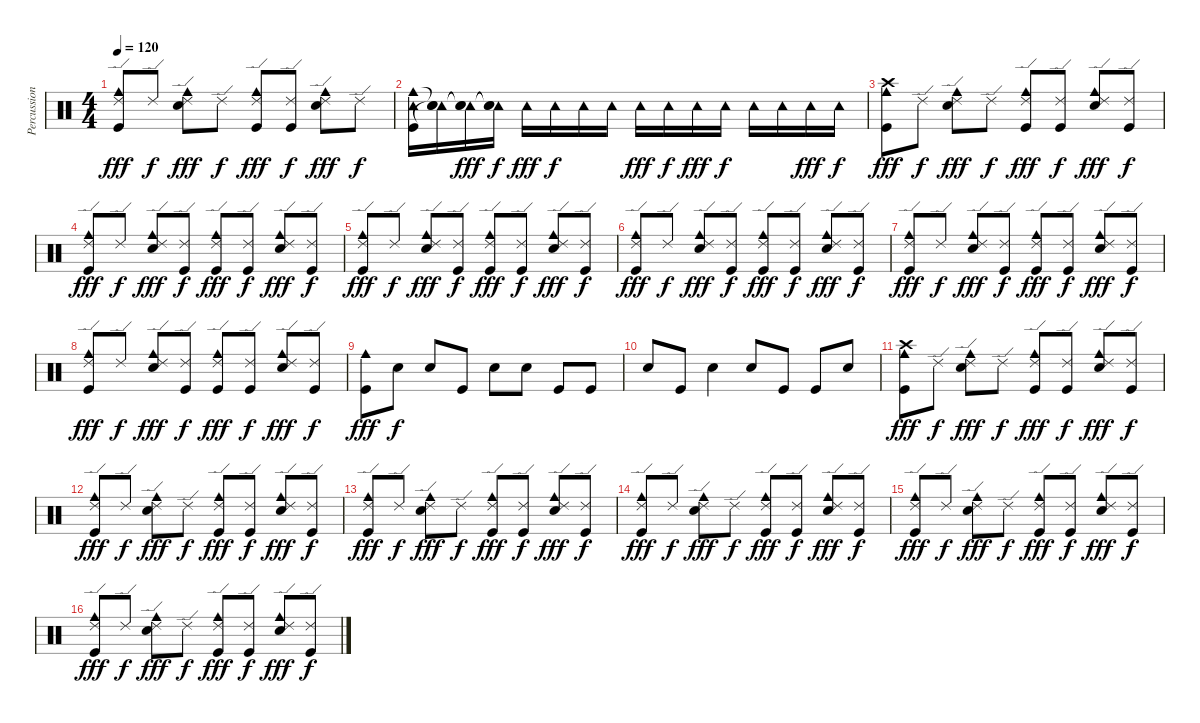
\track ("Percussion" "Percussion") {instrument percussion}
\staff {score}
\articulation defaults
\ts (4 4)
\tempo 120
\clef neutral
\ks c
("Ride (edge) 2" "Cowbell medium (hit)" "Kick (hit)").8{dy fff} "Ride (edge) 2".8{dy f} ("Ride (edge) 2" "Cowbell medium (hit)" "Snare (hit) 2").8{dy fff} "Ride (edge) 2".8{dy f} ("Ride (edge) 2" "Cowbell medium (hit)" "Kick (hit)").8{dy fff} ("Ride (edge) 2" "Kick (hit)").8{dy f} ("Ride (edge) 2" "Cowbell medium (hit)" "Snare (hit) 2").8{dy fff} "Ride (edge) 2".8{dy f} |
("Tambourine (hit)" "Cowbell medium (hit)" "Kick (hit)").16 ("Tambourine (hit)" "Snare (hit)"{t} "Snare (hit)"{t}).16 ("Tambourine (hit)" "Snare (hit)"{t} "Snare (hit)"{t}).16{dy fff} ("Tambourine (hit)" "Snare (hit)"{t} "Snare (hit)"{t}).16{dy f} "Tambourine (hit)".16{dy fff} "Tambourine (hit)".16{dy f} "Tambourine (hit)".16 "Tambourine (hit)".16 "Tambourine (hit)".16{dy fff} "Tambourine (hit)".16{dy f} "Tambourine (hit)".16{dy fff} "Tambourine (hit)".16{dy f} "Tambourine (hit)".16 "Tambourine (hit)".16 "Tambourine (hit)".16{dy fff} "Tambourine (hit)".16{dy f} |
("Crash high (hit)" "Cowbell medium (hit)" "Kick (hit)").8{dy fff} "Ride (edge) 2".8{dy f} ("Ride (edge) 2" "Cowbell medium (hit)" "Snare (hit) 2").8{dy fff} "Ride (edge) 2".8{dy f} ("Ride (edge) 2" "Cowbell medium (hit)" "Kick (hit)").8{dy fff} ("Ride (edge) 2" "Kick (hit)").8{dy f} ("Ride (edge) 2" "Cowbell medium (hit)" "Snare (hit) 2").8{dy fff} ("Ride (edge) 2" "Kick (hit)").8{dy f} |
("Ride (edge) 2" "Cowbell medium (hit)" "Kick (hit)").8{dy fff} "Ride (edge) 2".8{dy f} ("Ride (edge) 2" "Cowbell medium (hit)" "Snare (hit) 2").8{dy fff} ("Ride (edge) 2" "Kick (hit)").8{dy f} ("Ride (edge) 2" "Cowbell medium (hit)" "Kick (hit)").8{dy fff} ("Ride (edge) 2" "Kick (hit)").8{dy f} ("Ride (edge) 2" "Cowbell medium (hit)" "Snare (hit) 2").8{dy fff} ("Ride (edge) 2" "Kick (hit)").8{dy f} |
("Ride (edge) 2" "Cowbell medium (hit)" "Kick (hit)").8{dy fff} "Ride (edge) 2".8{dy f} ("Ride (edge) 2" "Cowbell medium (hit)" "Snare (hit) 2").8{dy fff} ("Ride (edge) 2" "Kick (hit)").8{dy f} ("Ride (edge) 2" "Cowbell medium (hit)" "Kick (hit)").8{dy fff} ("Ride (edge) 2" "Kick (hit)").8{dy f} ("Ride (edge) 2" "Cowbell medium (hit)" "Snare (hit) 2").8{dy fff} ("Ride (edge) 2" "Kick (hit)").8{dy f} |
("Ride (edge) 2" "Cowbell medium (hit)" "Kick (hit)").8{dy fff} "Ride (edge) 2".8{dy f} ("Ride (edge) 2" "Cowbell medium (hit)" "Snare (hit) 2").8{dy fff} ("Ride (edge) 2" "Kick (hit)").8{dy f} ("Ride (edge) 2" "Cowbell medium (hit)" "Kick (hit)").8{dy fff} ("Ride (edge) 2" "Kick (hit)").8{dy f} ("Ride (edge) 2" "Cowbell medium (hit)" "Snare (hit) 2").8{dy fff} ("Ride (edge) 2" "Kick (hit)").8{dy f} |
("Ride (edge) 2" "Cowbell medium (hit)" "Kick (hit)").8{dy fff} "Ride (edge) 2".8{dy f} ("Ride (edge) 2" "Cowbell medium (hit)" "Snare (hit) 2").8{dy fff} ("Ride (edge) 2" "Kick (hit)").8{dy f} ("Ride (edge) 2" "Cowbell medium (hit)" "Kick (hit)").8{dy fff} ("Ride (edge) 2" "Kick (hit)").8{dy f} ("Ride (edge) 2" "Cowbell medium (hit)" "Snare (hit) 2").8{dy fff} ("Ride (edge) 2" "Kick (hit)").8{dy f} |
("Ride (edge) 2" "Cowbell medium (hit)" "Kick (hit)").8{dy fff} "Ride (edge) 2".8{dy f} ("Ride (edge) 2" "Cowbell medium (hit)" "Snare (hit) 2").8{dy fff} ("Ride (edge) 2" "Kick (hit)").8{dy f} ("Ride (edge) 2" "Cowbell medium (hit)" "Kick (hit)").8{dy fff} ("Ride (edge) 2" "Kick (hit)").8{dy f} ("Ride (edge) 2" "Cowbell medium (hit)" "Snare (hit) 2").8{dy fff} ("Ride (edge) 2" "Kick (hit)").8{dy f} |
("Cowbell medium (hit)" "Kick (hit)").8{dy fff} "Snare (hit) 2".8{dy f} "Snare (hit) 2".8 "Kick (hit)".8 "Snare (hit) 2".8 "Snare (hit) 2".8 "Kick (hit)".8 "Kick (hit)".8 |
"Snare (hit) 2".8 "Kick (hit)".8 "Snare (hit) 2".4 "Snare (hit) 2".8 "Kick (hit)".8 "Kick (hit)".8 "Snare (hit) 2".8 |
("Crash high (hit)" "Cowbell medium (hit)" "Kick (hit)").8{dy fff} "Ride (edge) 2".8{dy f} ("Ride (edge) 2" "Cowbell medium (hit)" "Snare (hit) 2").8{dy fff} "Ride (edge) 2".8{dy f} ("Ride (edge) 2" "Cowbell medium (hit)" "Kick (hit)").8{dy fff} ("Ride (edge) 2" "Kick (hit)").8{dy f} ("Ride (edge) 2" "Cowbell medium (hit)" "Snare (hit) 2").8{dy fff} ("Ride (edge) 2" "Kick (hit)").8{dy f} |
("Ride (edge) 2" "Cowbell medium (hit)" "Kick (hit)").8{dy fff} "Ride (edge) 2".8{dy f} ("Ride (edge) 2" "Cowbell medium (hit)" "Snare (hit) 2").8{dy fff} "Ride (edge) 2".8{dy f} ("Ride (edge) 2" "Cowbell medium (hit)" "Kick (hit)").8{dy fff} ("Ride (edge) 2" "Kick (hit)").8{dy f} ("Ride (edge) 2" "Cowbell medium (hit)" "Snare (hit) 2").8{dy fff} ("Ride (edge) 2" "Kick (hit)").8{dy f} |
("Ride (edge) 2" "Cowbell medium (hit)" "Kick (hit)").8{dy fff} "Ride (edge) 2".8{dy f} ("Ride (edge) 2" "Cowbell medium (hit)" "Snare (hit) 2").8{dy fff} "Ride (edge) 2".8{dy f} ("Ride (edge) 2" "Cowbell medium (hit)" "Kick (hit)").8{dy fff} ("Ride (edge) 2" "Kick (hit)").8{dy f} ("Ride (edge) 2" "Cowbell medium (hit)" "Snare (hit) 2").8{dy fff} ("Ride (edge) 2" "Kick (hit)").8{dy f} |
("Ride (edge) 2" "Cowbell medium (hit)" "Kick (hit)").8{dy fff} "Ride (edge) 2".8{dy f} ("Ride (edge) 2" "Cowbell medium (hit)" "Snare (hit) 2").8{dy fff} "Ride (edge) 2".8{dy f} ("Ride (edge) 2" "Cowbell medium (hit)" "Kick (hit)").8{dy fff} ("Ride (edge) 2" "Kick (hit)").8{dy f} ("Ride (edge) 2" "Cowbell medium (hit)" "Snare (hit) 2").8{dy fff} ("Ride (edge) 2" "Kick (hit)").8{dy f} |
("Ride (edge) 2" "Cowbell medium (hit)" "Kick (hit)").8{dy fff} "Ride (edge) 2".8{dy f} ("Ride (edge) 2" "Cowbell medium (hit)" "Snare (hit) 2").8{dy fff} "Ride (edge) 2".8{dy f} ("Ride (edge) 2" "Cowbell medium (hit)" "Kick (hit)").8{dy fff} ("Ride (edge) 2" "Kick (hit)").8{dy f} ("Ride (edge) 2" "Cowbell medium (hit)" "Snare (hit) 2").8{dy fff} ("Ride (edge) 2" "Kick (hit)").8{dy f} |
("Ride (edge) 2" "Cowbell medium (hit)" "Kick (hit)").8{dy fff} "Ride (edge) 2".8{dy f} ("Ride (edge) 2" "Cowbell medium (hit)" "Snare (hit) 2").8{dy fff} "Ride (edge) 2".8{dy f} ("Ride (edge) 2" "Cowbell medium (hit)" "Kick (hit)").8{dy fff} ("Ride (edge) 2" "Kick (hit)").8{dy f} ("Ride (edge) 2" "Cowbell medium (hit)" "Snare (hit) 2").8{dy fff} ("Ride (edge) 2" "Kick (hit)").8{dy f}
